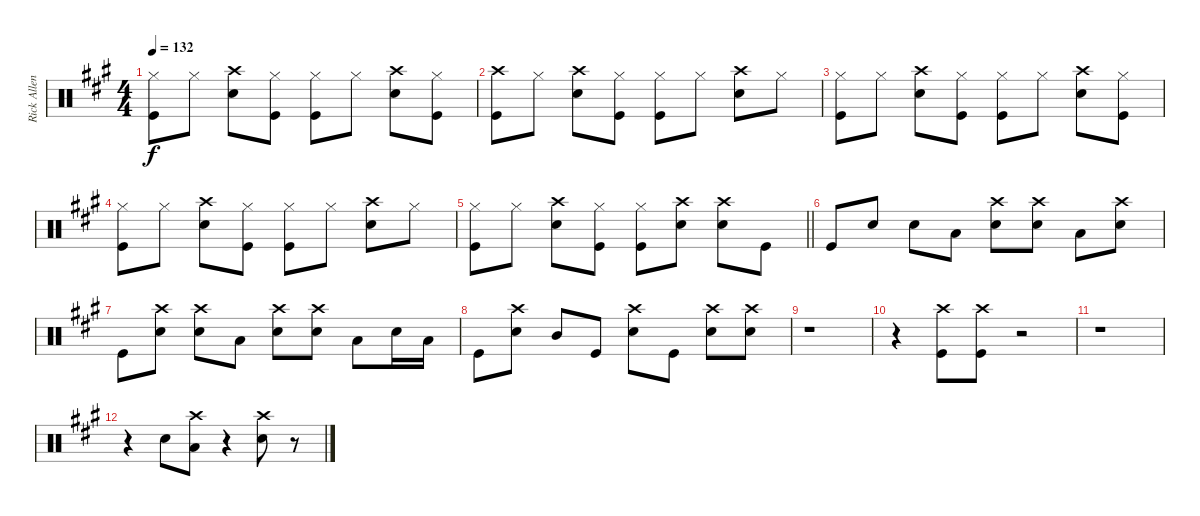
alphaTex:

\track ("Rick Allen" "Rick Allen") {instrument percussion}
\staff {score}
\articulation defaults
\ts (4 4)
\tempo 132
\clef neutral
\ks a
("Hi-Hat (closed)" "Kick (hit)").8{dy f} "Hi-Hat (closed)".8 ("Crash high (hit)" "Snare (hit) 2").8 ("Hi-Hat (closed)" "Kick (hit)").8 ("Hi-Hat (closed)" "Kick (hit)").8 "Hi-Hat (closed)".8 ("Crash high (hit)" "Snare (hit) 2").8 ("Hi-Hat (closed)" "Kick (hit)").8 |
("Crash high (hit)" "Kick (hit)").8 "Hi-Hat (closed)".8 ("Crash high (hit)" "Snare (hit) 2").8 ("Hi-Hat (closed)" "Kick (hit)").8 ("Hi-Hat (closed)" "Kick (hit)").8 "Hi-Hat (closed)".8 ("Crash high (hit)" "Snare (hit) 2").8 "Hi-Hat (closed)".8 |
("Hi-Hat (closed)" "Kick (hit)").8 "Hi-Hat (closed)".8 ("Crash high (hit)" "Snare (hit) 2").8 ("Hi-Hat (closed)" "Kick (hit)").8 ("Hi-Hat (closed)" "Kick (hit)").8 "Hi-Hat (closed)".8 ("Crash high (hit)" "Snare (hit) 2").8 ("Hi-Hat (closed)" "Kick (hit)").8 |
("Hi-Hat (closed)" "Kick (hit)").8 "Hi-Hat (closed)".8 ("Crash high (hit)" "Snare (hit) 2").8 ("Hi-Hat (closed)" "Kick (hit)").8 ("Hi-Hat (closed)" "Kick (hit)").8 "Hi-Hat (closed)".8 ("Crash high (hit)" "Snare (hit) 2").8 "Hi-Hat (closed)".8 |
\barLineRight lightlight
("Hi-Hat (closed)" "Kick (hit)").8 "Hi-Hat (closed)".8 ("Crash high (hit)" "Snare (hit) 2").8 ("Hi-Hat (closed)" "Kick (hit)").8 ("Hi-Hat (closed)" "Kick (hit)").8 ("Crash high (hit)" "Snare (hit) 2").8 ("Crash high (hit)" "Snare (hit) 2").8 "Kick (hit)".8 |
"Kick (hit)".8 "Snare (hit) 2".8 "Snare (hit) 2".8 "Low Tom (hit)".8 ("Crash high (hit)" "Snare (hit) 2").8 ("Crash high (hit)" "Snare (hit) 2").8 "Low Tom (hit)".8 ("Crash high (hit)" "Snare (hit) 2").8 |
"Kick (hit)".8 ("Crash high (hit)" "Snare (hit) 2").8 ("Crash high (hit)" "Snare (hit) 2").8 "Low Tom (hit)".8 ("Crash high (hit)" "Snare (hit) 2").8 ("Crash high (hit)" "Snare (hit) 2").8 "Low Tom (hit)".8 "Snare (hit) 2".16 "Low Tom (hit)".16 |
"Kick (hit)".8 ("Crash high (hit)" "Snare (hit) 2").8 "Mid Tom (hit)".8 "Kick (hit)".8 ("Crash high (hit)" "Snare (hit) 2").8 "Kick (hit)".8 ("Crash high (hit)" "Snare (hit) 2").8 ("Crash high (hit)" "Snare (hit) 2").8 |
r.1 |
r.4 ("Crash high (hit)" "Kick (hit)").8 ("Crash high (hit)" "Kick (hit)").8 r.2 |
r.1 |
r.4 "Snare (hit) 2".8 ("Crash high (hit)" "Low Tom (hit)").8 r.4 ("Crash high (hit)" "Snare (hit) 2").8 r.8
